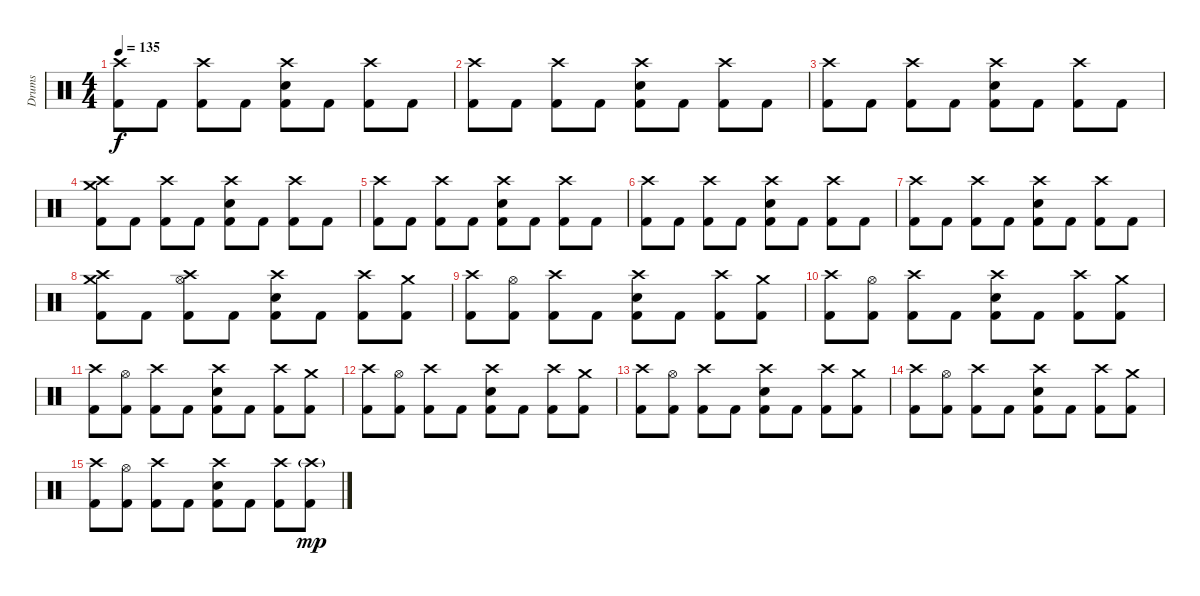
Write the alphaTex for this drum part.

\track ("Drums" "Drums") {instrument percussion}
\staff {score}
\articulation defaults
\ts (4 4)
\tempo 135
\clef neutral
\ks c
("Crash high (hit)" "Kick (hit) 2").8{dy f} "Kick (hit) 2".8 ("Crash high (hit)" "Kick (hit) 2").8 "Kick (hit) 2".8 ("Crash high (hit)" "Electric Snare (hit)" "Kick (hit) 2").8 "Kick (hit) 2".8 ("Crash high (hit)" "Kick (hit) 2").8 "Kick (hit) 2".8 |
("Crash high (hit)" "Kick (hit) 2").8 "Kick (hit) 2".8 ("Crash high (hit)" "Kick (hit) 2").8 "Kick (hit) 2".8 ("Crash high (hit)" "Electric Snare (hit)" "Kick (hit) 2").8 "Kick (hit) 2".8 ("Crash high (hit)" "Kick (hit) 2").8 "Kick (hit) 2".8 |
("Crash high (hit)" "Kick (hit) 2").8 "Kick (hit) 2".8 ("Crash high (hit)" "Kick (hit) 2").8 "Kick (hit) 2".8 ("Crash high (hit)" "Electric Snare (hit)" "Kick (hit) 2").8 "Kick (hit) 2".8 ("Crash high (hit)" "Kick (hit) 2").8 "Kick (hit) 2".8 |
("Crash high (hit)" "Crash medium (hit)" "Kick (hit) 2").8 "Kick (hit) 2".8 ("Crash high (hit)" "Kick (hit) 2").8 "Kick (hit) 2".8 ("Crash high (hit)" "Electric Snare (hit)" "Kick (hit) 2").8 "Kick (hit) 2".8 ("Crash high (hit)" "Kick (hit) 2").8 "Kick (hit) 2".8 |
("Crash high (hit)" "Kick (hit) 2").8 "Kick (hit) 2".8 ("Crash high (hit)" "Kick (hit) 2").8 "Kick (hit) 2".8 ("Crash high (hit)" "Electric Snare (hit)" "Kick (hit) 2").8 "Kick (hit) 2".8 ("Crash high (hit)" "Kick (hit) 2").8 "Kick (hit) 2".8 |
("Crash high (hit)" "Kick (hit) 2").8 "Kick (hit) 2".8 ("Crash high (hit)" "Kick (hit) 2").8 "Kick (hit) 2".8 ("Crash high (hit)" "Electric Snare (hit)" "Kick (hit) 2").8 "Kick (hit) 2".8 ("Crash high (hit)" "Kick (hit) 2").8 "Kick (hit) 2".8 |
("Crash high (hit)" "Kick (hit) 2").8 "Kick (hit) 2".8 ("Crash high (hit)" "Kick (hit) 2").8 "Kick (hit) 2".8 ("Crash high (hit)" "Electric Snare (hit)" "Kick (hit) 2").8 "Kick (hit) 2".8 ("Crash high (hit)" "Kick (hit) 2").8 "Kick (hit) 2".8 |
("Crash high (hit)" "Crash medium (hit)" "Kick (hit) 2").8 "Kick (hit) 2".8 ("Crash high (hit)" "Hi-Hat (open)" "Kick (hit) 2").8 "Kick (hit) 2".8 ("Crash high (hit)" "Electric Snare (hit)" "Kick (hit) 2").8 "Kick (hit) 2".8 ("Crash high (hit)" "Kick (hit) 2").8 ("Crash medium (hit)" "Kick (hit) 2").8 |
("Crash high (hit)" "Kick (hit) 2").8 ("Hi-Hat (open)" "Kick (hit) 2").8 ("Crash high (hit)" "Kick (hit) 2").8 "Kick (hit) 2".8 ("Crash high (hit)" "Electric Snare (hit)" "Kick (hit) 2").8 "Kick (hit) 2".8 ("Crash high (hit)" "Kick (hit) 2").8 ("Crash medium (hit)" "Kick (hit) 2").8 |
("Crash high (hit)" "Kick (hit) 2").8 ("Hi-Hat (open)" "Kick (hit) 2").8 ("Crash high (hit)" "Kick (hit) 2").8 "Kick (hit) 2".8 ("Crash high (hit)" "Electric Snare (hit)" "Kick (hit) 2").8 "Kick (hit) 2".8 ("Crash high (hit)" "Kick (hit) 2").8 ("Crash medium (hit)" "Kick (hit) 2").8 |
("Crash high (hit)" "Kick (hit) 2").8 ("Hi-Hat (open)" "Kick (hit) 2").8 ("Crash high (hit)" "Kick (hit) 2").8 "Kick (hit) 2".8 ("Crash high (hit)" "Electric Snare (hit)" "Kick (hit) 2").8 "Kick (hit) 2".8 ("Crash high (hit)" "Kick (hit) 2").8 ("Crash medium (hit)" "Kick (hit) 2").8 |
("Crash high (hit)" "Kick (hit) 2").8 ("Hi-Hat (open)" "Kick (hit) 2").8 ("Crash high (hit)" "Kick (hit) 2").8 "Kick (hit) 2".8 ("Crash high (hit)" "Electric Snare (hit)" "Kick (hit) 2").8 "Kick (hit) 2".8 ("Crash high (hit)" "Kick (hit) 2").8 ("Crash medium (hit)" "Kick (hit) 2").8 |
("Crash high (hit)" "Kick (hit) 2").8 ("Hi-Hat (open)" "Kick (hit) 2").8 ("Crash high (hit)" "Kick (hit) 2").8 "Kick (hit) 2".8 ("Crash high (hit)" "Electric Snare (hit)" "Kick (hit) 2").8 "Kick (hit) 2".8 ("Crash high (hit)" "Kick (hit) 2").8 ("Crash medium (hit)" "Kick (hit) 2").8 |
("Crash high (hit)" "Kick (hit) 2").8 ("Hi-Hat (open)" "Kick (hit) 2").8 ("Crash high (hit)" "Kick (hit) 2").8 "Kick (hit) 2".8 ("Crash high (hit)" "Electric Snare (hit)" "Kick (hit) 2").8 "Kick (hit) 2".8 ("Crash high (hit)" "Kick (hit) 2").8 ("Crash medium (hit)" "Kick (hit) 2").8 |
("Crash high (hit)" "Kick (hit) 2").8 ("Hi-Hat (open)" "Kick (hit) 2").8 ("Crash high (hit)" "Kick (hit) 2").8 "Kick (hit) 2".8 ("Crash high (hit)" "Electric Snare (hit)" "Kick (hit) 2").8 "Kick (hit) 2".8 ("Crash high (hit)" "Kick (hit) 2").8 ("Crash high (hit)"{g} "Kick (hit) 2").8{dy mp}
